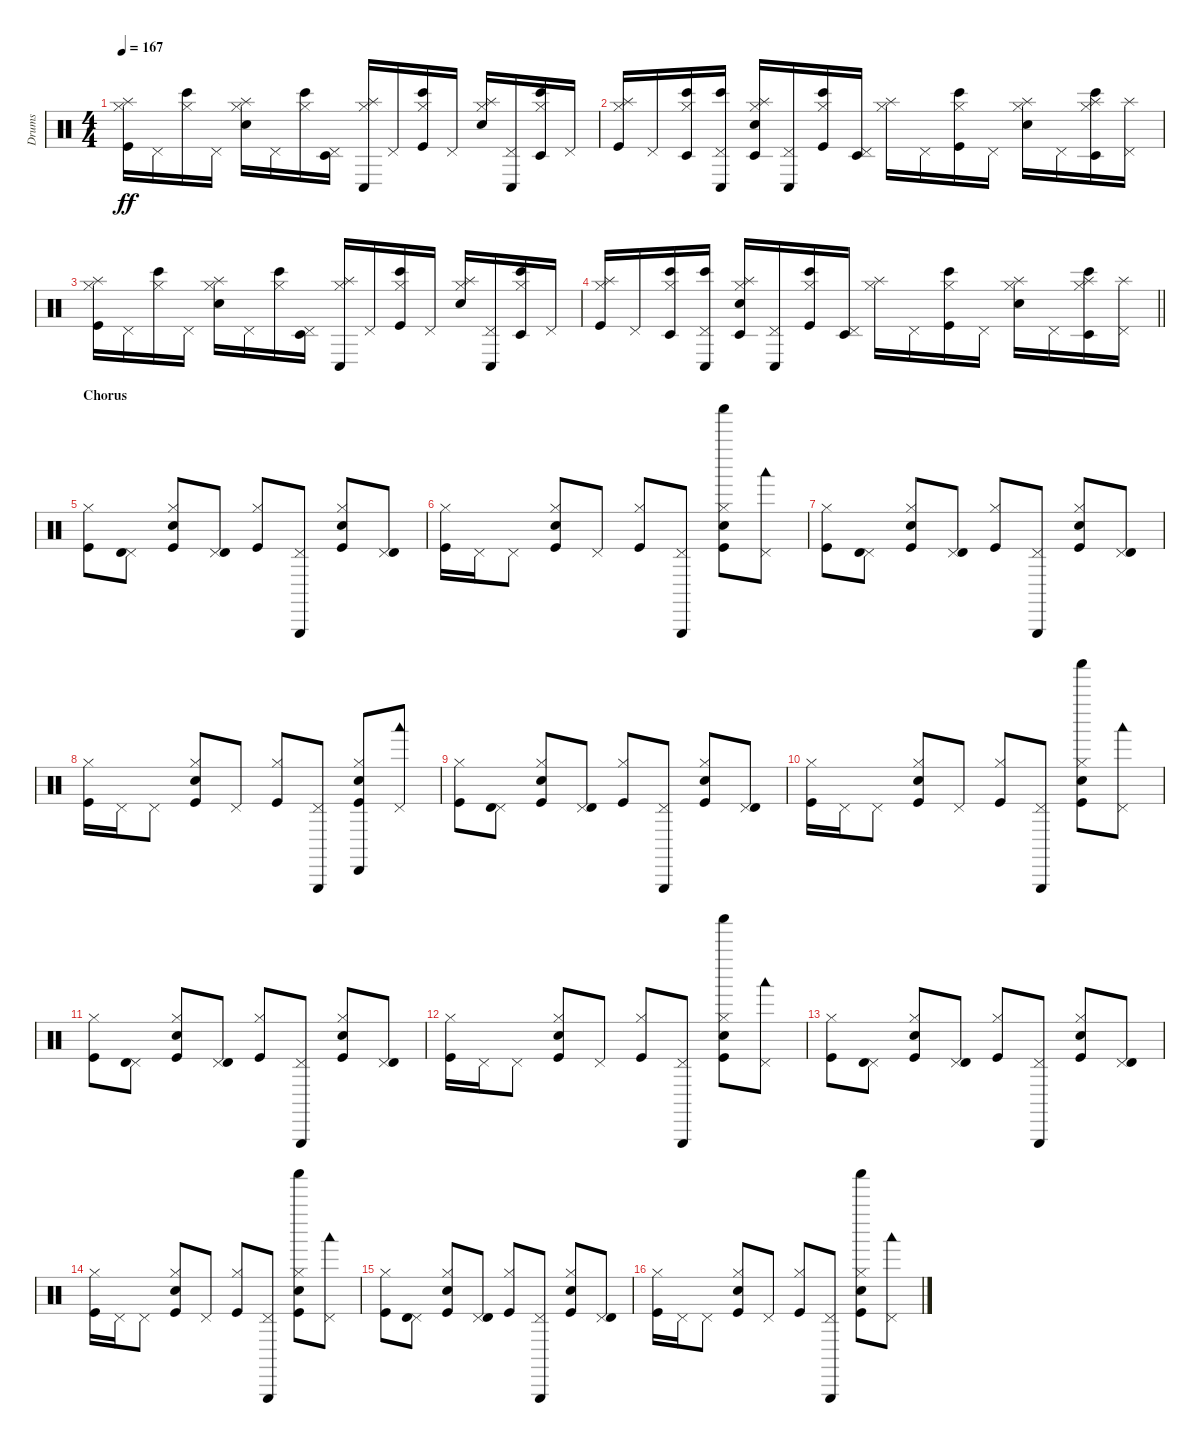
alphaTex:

\track ("Drums" "Drums") {instrument percussion}
\staff {score}
\articulation defaults
\ts (4 4)
\tempo 167
\clef neutral
\ks c
("Kick (hit)" "Hi-Hat (closed)" "Splash (hit)").16{dy ff} "Pedal Hi-Hat (hit)".16 ("Hi-Hat (closed)" "Bongo High (hit)").16 "Pedal Hi-Hat (hit)".16 ("Electric Snare (hit)" "Hi-Hat (closed)" "Splash (hit)").16 "Pedal Hi-Hat (hit)".16 ("Hi-Hat (closed)" "Bongo High (hit)").16 ("Pedal Hi-Hat (hit)" "Timbale low (hit)").16 ("Hi-Hat (closed)" "Splash (hit)" "Conga low (hit)").16 "Pedal Hi-Hat (hit)".16 ("Kick (hit)" "Hi-Hat (closed)" "Bongo High (hit)").16 "Pedal Hi-Hat (hit)".16 ("Electric Snare (hit)" "Hi-Hat (closed)" "Splash (hit)").16 ("Pedal Hi-Hat (hit)" "Conga low (hit)").16 ("Hi-Hat (closed)" "Bongo High (hit)" "Timbale low (hit)").16 "Pedal Hi-Hat (hit)".16 |
("Kick (hit)" "Hi-Hat (closed)" "Splash (hit)").16 "Pedal Hi-Hat (hit)".16 ("Hi-Hat (closed)" "Bongo High (hit)" "Timbale low (hit)").16 ("Pedal Hi-Hat (hit)" "Bongo High (hit)" "Conga low (hit)").16 ("Electric Snare (hit)" "Hi-Hat (closed)" "Splash (hit)" "Timbale low (hit)").16 ("Pedal Hi-Hat (hit)" "Conga low (hit)").16 ("Kick (hit)" "Hi-Hat (closed)" "Bongo High (hit)").16 ("Pedal Hi-Hat (hit)" "Timbale low (hit)").16 ("Hi-Hat (closed)" "Splash (hit)").16 "Pedal Hi-Hat (hit)".16 ("Kick (hit)" "Hi-Hat (closed)" "Bongo High (hit)").16 "Pedal Hi-Hat (hit)".16 ("Electric Snare (hit)" "Hi-Hat (closed)" "Splash (hit)").16 "Pedal Hi-Hat (hit)".16 ("Hi-Hat (closed)" "Splash (hit)" "Bongo High (hit)" "Timbale low (hit)").16 ("Pedal Hi-Hat (hit)" "Splash (hit)").16 |
("Kick (hit)" "Hi-Hat (closed)" "Splash (hit)").16 "Pedal Hi-Hat (hit)".16 ("Hi-Hat (closed)" "Bongo High (hit)").16 "Pedal Hi-Hat (hit)".16 ("Electric Snare (hit)" "Hi-Hat (closed)" "Splash (hit)").16 "Pedal Hi-Hat (hit)".16 ("Hi-Hat (closed)" "Bongo High (hit)").16 ("Pedal Hi-Hat (hit)" "Timbale low (hit)").16 ("Hi-Hat (closed)" "Splash (hit)" "Conga low (hit)").16 "Pedal Hi-Hat (hit)".16 ("Kick (hit)" "Hi-Hat (closed)" "Bongo High (hit)").16 "Pedal Hi-Hat (hit)".16 ("Electric Snare (hit)" "Hi-Hat (closed)" "Splash (hit)").16 ("Pedal Hi-Hat (hit)" "Conga low (hit)").16 ("Hi-Hat (closed)" "Bongo High (hit)" "Timbale low (hit)").16 "Pedal Hi-Hat (hit)".16 |
\barLineRight lightlight
("Kick (hit)" "Hi-Hat (closed)" "Splash (hit)").16 "Pedal Hi-Hat (hit)".16 ("Hi-Hat (closed)" "Bongo High (hit)" "Timbale low (hit)").16 ("Pedal Hi-Hat (hit)" "Bongo High (hit)" "Conga low (hit)").16 ("Electric Snare (hit)" "Hi-Hat (closed)" "Splash (hit)" "Timbale low (hit)").16 ("Pedal Hi-Hat (hit)" "Conga low (hit)").16 ("Kick (hit)" "Hi-Hat (closed)" "Bongo High (hit)").16 ("Pedal Hi-Hat (hit)" "Timbale low (hit)").16 ("Hi-Hat (closed)" "Splash (hit)").16 "Pedal Hi-Hat (hit)".16 ("Kick (hit)" "Hi-Hat (closed)" "Bongo High (hit)").16 "Pedal Hi-Hat (hit)".16 ("Electric Snare (hit)" "Hi-Hat (closed)" "Splash (hit)").16 "Pedal Hi-Hat (hit)".16 ("Hi-Hat (closed)" "Splash (hit)" "Bongo High (hit)" "Timbale low (hit)").16 ("Pedal Hi-Hat (hit)" "Splash (hit)").16 |
\section ("" "Chorus")
("Kick (hit)" "Hi-Hat (closed)").8 ("Pedal Hi-Hat (hit)" "Timbale high (hit)").8 ("Kick (hit)" "Hi-Hat (closed)" "Snare (hit) 2").8 ("Pedal Hi-Hat (hit)" "Timbale high (hit)").8 ("Kick (hit)" "Hi-Hat (closed)").8 ("Pedal Hi-Hat (hit)" "Triangle (hit)").8 ("Kick (hit)" "Hi-Hat (closed)" "Snare (hit) 2").8 ("Pedal Hi-Hat (hit)" "Timbale high (hit)").8 |
("Kick (hit)" "Hi-Hat (closed)").16 "Pedal Hi-Hat (hit)".16 "Pedal Hi-Hat (hit)".8 ("Kick (hit)" "Hi-Hat (closed)" "Snare (hit) 2").8 "Pedal Hi-Hat (hit)".8 ("Kick (hit)" "Hi-Hat (closed)").8 ("Pedal Hi-Hat (hit)" "Triangle (hit)").8 ("Kick (hit)" "Hi-Hat (closed)" "Snare (hit) 2" "Shaker (hit)").8 ("Pedal Hi-Hat (hit)" "Woodblock low (hit)").8 |
("Kick (hit)" "Hi-Hat (closed)").8 ("Pedal Hi-Hat (hit)" "Timbale high (hit)").8 ("Kick (hit)" "Hi-Hat (closed)" "Snare (hit) 2").8 ("Pedal Hi-Hat (hit)" "Timbale high (hit)").8 ("Kick (hit)" "Hi-Hat (closed)").8 ("Pedal Hi-Hat (hit)" "Triangle (hit)").8 ("Kick (hit)" "Hi-Hat (closed)" "Snare (hit) 2").8 ("Pedal Hi-Hat (hit)" "Timbale high (hit)").8 |
("Kick (hit)" "Hi-Hat (closed)").16 "Pedal Hi-Hat (hit)".16 "Pedal Hi-Hat (hit)".8 ("Kick (hit)" "Hi-Hat (closed)" "Snare (hit) 2").8 "Pedal Hi-Hat (hit)".8 ("Kick (hit)" "Hi-Hat (closed)").8 ("Pedal Hi-Hat (hit)" "Triangle (hit)").8 ("Kick (hit)" "Hi-Hat (closed)" "Cabasa (hit)" "Snare (hit) 2").8 ("Pedal Hi-Hat (hit)" "Woodblock low (hit)").8 |
("Kick (hit)" "Hi-Hat (closed)").8 ("Pedal Hi-Hat (hit)" "Timbale high (hit)").8 ("Kick (hit)" "Hi-Hat (closed)" "Snare (hit) 2").8 ("Pedal Hi-Hat (hit)" "Timbale high (hit)").8 ("Kick (hit)" "Hi-Hat (closed)").8 ("Pedal Hi-Hat (hit)" "Triangle (hit)").8 ("Kick (hit)" "Hi-Hat (closed)" "Snare (hit) 2").8 ("Pedal Hi-Hat (hit)" "Timbale high (hit)").8 |
("Kick (hit)" "Hi-Hat (closed)").16 "Pedal Hi-Hat (hit)".16 "Pedal Hi-Hat (hit)".8 ("Kick (hit)" "Hi-Hat (closed)" "Snare (hit) 2").8 "Pedal Hi-Hat (hit)".8 ("Kick (hit)" "Hi-Hat (closed)").8 ("Pedal Hi-Hat (hit)" "Triangle (hit)").8 ("Kick (hit)" "Hi-Hat (closed)" "Snare (hit) 2" "Shaker (hit)").8 ("Pedal Hi-Hat (hit)" "Woodblock low (hit)").8 |
("Kick (hit)" "Hi-Hat (closed)").8 ("Pedal Hi-Hat (hit)" "Timbale high (hit)").8 ("Kick (hit)" "Hi-Hat (closed)" "Snare (hit) 2").8 ("Pedal Hi-Hat (hit)" "Timbale high (hit)").8 ("Kick (hit)" "Hi-Hat (closed)").8 ("Pedal Hi-Hat (hit)" "Triangle (hit)").8 ("Kick (hit)" "Hi-Hat (closed)" "Snare (hit) 2").8 ("Pedal Hi-Hat (hit)" "Timbale high (hit)").8 |
("Kick (hit)" "Hi-Hat (closed)").16 "Pedal Hi-Hat (hit)".16 "Pedal Hi-Hat (hit)".8 ("Kick (hit)" "Hi-Hat (closed)" "Snare (hit) 2").8 "Pedal Hi-Hat (hit)".8 ("Kick (hit)" "Hi-Hat (closed)").8 ("Pedal Hi-Hat (hit)" "Triangle (hit)").8 ("Kick (hit)" "Hi-Hat (closed)" "Snare (hit) 2" "Shaker (hit)").8 ("Pedal Hi-Hat (hit)" "Woodblock low (hit)").8 |
("Kick (hit)" "Hi-Hat (closed)").8 ("Pedal Hi-Hat (hit)" "Timbale high (hit)").8 ("Kick (hit)" "Hi-Hat (closed)" "Snare (hit) 2").8 ("Pedal Hi-Hat (hit)" "Timbale high (hit)").8 ("Kick (hit)" "Hi-Hat (closed)").8 ("Pedal Hi-Hat (hit)" "Triangle (hit)").8 ("Kick (hit)" "Hi-Hat (closed)" "Snare (hit) 2").8 ("Pedal Hi-Hat (hit)" "Timbale high (hit)").8 |
("Kick (hit)" "Hi-Hat (closed)").16 "Pedal Hi-Hat (hit)".16 "Pedal Hi-Hat (hit)".8 ("Kick (hit)" "Hi-Hat (closed)" "Snare (hit) 2").8 "Pedal Hi-Hat (hit)".8 ("Kick (hit)" "Hi-Hat (closed)").8 ("Pedal Hi-Hat (hit)" "Triangle (hit)").8 ("Kick (hit)" "Hi-Hat (closed)" "Snare (hit) 2" "Shaker (hit)").8 ("Pedal Hi-Hat (hit)" "Woodblock low (hit)").8 |
("Kick (hit)" "Hi-Hat (closed)").8 ("Pedal Hi-Hat (hit)" "Timbale high (hit)").8 ("Kick (hit)" "Hi-Hat (closed)" "Snare (hit) 2").8 ("Pedal Hi-Hat (hit)" "Timbale high (hit)").8 ("Kick (hit)" "Hi-Hat (closed)").8 ("Pedal Hi-Hat (hit)" "Triangle (hit)").8 ("Kick (hit)" "Hi-Hat (closed)" "Snare (hit) 2").8 ("Pedal Hi-Hat (hit)" "Timbale high (hit)").8 |
("Kick (hit)" "Hi-Hat (closed)").16 "Pedal Hi-Hat (hit)".16 "Pedal Hi-Hat (hit)".8 ("Kick (hit)" "Hi-Hat (closed)" "Snare (hit) 2").8 "Pedal Hi-Hat (hit)".8 ("Kick (hit)" "Hi-Hat (closed)").8 ("Pedal Hi-Hat (hit)" "Triangle (hit)").8 ("Kick (hit)" "Hi-Hat (closed)" "Snare (hit) 2" "Shaker (hit)").8 ("Pedal Hi-Hat (hit)" "Woodblock low (hit)").8
